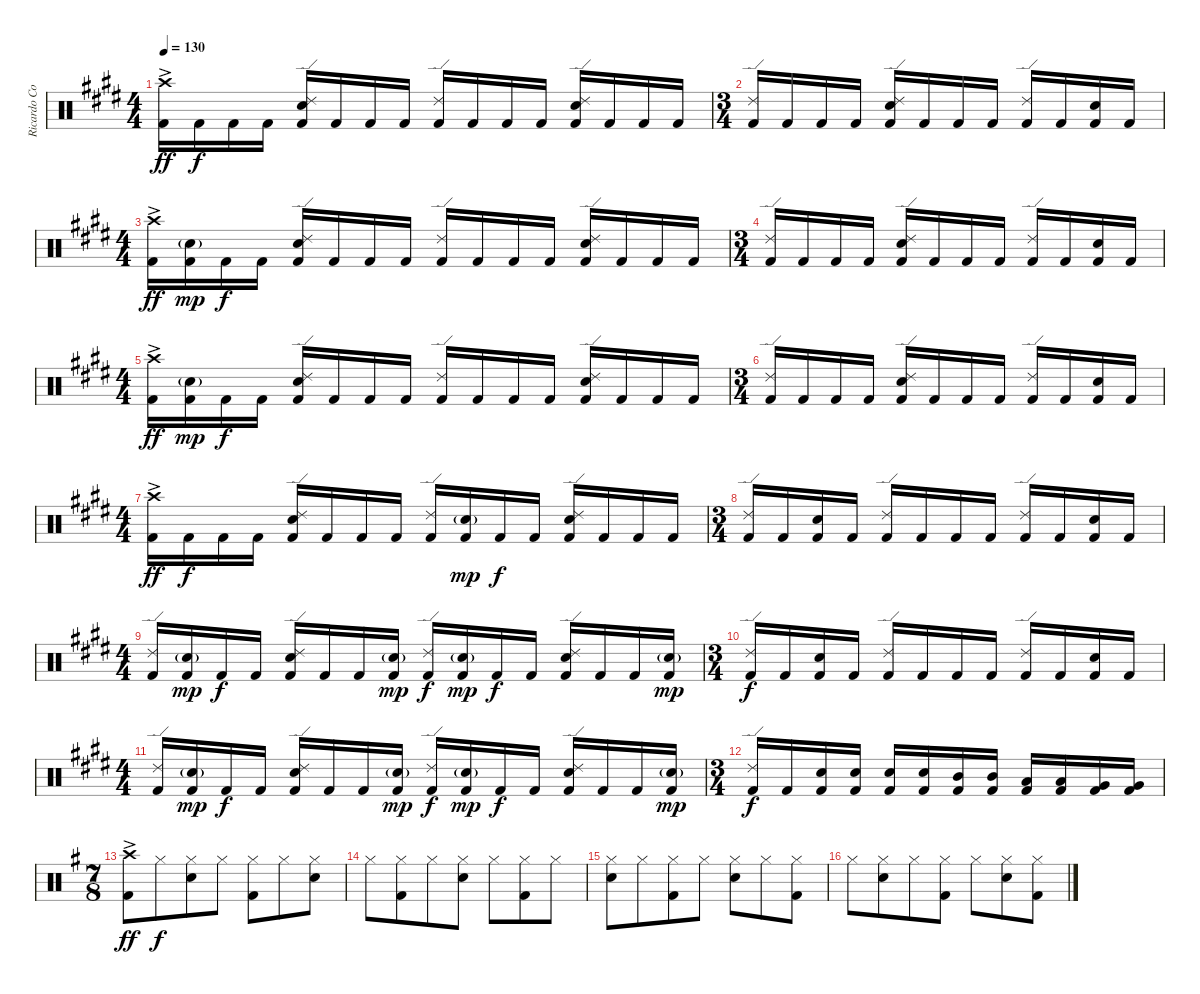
\track ("Ricardo Confessori" "Ricardo Co") {instrument percussion}
\staff {score}
\articulation defaults
\ts (4 4)
\tempo 130
\clef neutral
\ks c#minor
("Crash high (hit)"{ac} "Kick (hit) 2"{ac}).16{dy ff} "Kick (hit) 2".16{dy f} "Kick (hit) 2".16 "Kick (hit) 2".16 ("Kick (hit) 2" "Electric Snare (hit)" "Ride (edge) 2").16 "Kick (hit) 2".16 "Kick (hit) 2".16 "Kick (hit) 2".16 ("Kick (hit) 2" "Ride (edge) 2").16 "Kick (hit) 2".16 "Kick (hit) 2".16 "Kick (hit) 2".16 ("Kick (hit) 2" "Electric Snare (hit)" "Ride (edge) 2").16 "Kick (hit) 2".16 "Kick (hit) 2".16 "Kick (hit) 2".16 |
\ts (3 4)
("Ride (edge) 2" "Kick (hit) 2").16 "Kick (hit) 2".16 "Kick (hit) 2".16 "Kick (hit) 2".16 ("Ride (edge) 2" "Kick (hit) 2" "Electric Snare (hit)").16 "Kick (hit) 2".16 "Kick (hit) 2".16 "Kick (hit) 2".16 ("Kick (hit) 2" "Ride (edge) 2").16 "Kick (hit) 2".16 ("Kick (hit) 2" "Electric Snare (hit)").16 "Kick (hit) 2".16 |
\ts (4 4)
("Crash high (hit)"{ac} "Kick (hit) 2"{ac}).16{dy ff} ("Kick (hit) 2" "Electric Snare (hit)"{g}).16{dy mp} "Kick (hit) 2".16{dy f} "Kick (hit) 2".16 ("Kick (hit) 2" "Electric Snare (hit)" "Ride (edge) 2").16 "Kick (hit) 2".16 "Kick (hit) 2".16 "Kick (hit) 2".16 ("Kick (hit) 2" "Ride (edge) 2").16 "Kick (hit) 2".16 "Kick (hit) 2".16 "Kick (hit) 2".16 ("Kick (hit) 2" "Electric Snare (hit)" "Ride (edge) 2").16 "Kick (hit) 2".16 "Kick (hit) 2".16 "Kick (hit) 2".16 |
\ts (3 4)
("Ride (edge) 2" "Kick (hit) 2").16 "Kick (hit) 2".16 "Kick (hit) 2".16 "Kick (hit) 2".16 ("Ride (edge) 2" "Kick (hit) 2" "Electric Snare (hit)").16 "Kick (hit) 2".16 "Kick (hit) 2".16 "Kick (hit) 2".16 ("Kick (hit) 2" "Ride (edge) 2").16 "Kick (hit) 2".16 ("Kick (hit) 2" "Electric Snare (hit)").16 "Kick (hit) 2".16 |
\ts (4 4)
("Crash high (hit)"{ac} "Kick (hit) 2"{ac}).16{dy ff} ("Kick (hit) 2" "Electric Snare (hit)"{g}).16{dy mp} "Kick (hit) 2".16{dy f} "Kick (hit) 2".16 ("Kick (hit) 2" "Electric Snare (hit)" "Ride (edge) 2").16 "Kick (hit) 2".16 "Kick (hit) 2".16 "Kick (hit) 2".16 ("Kick (hit) 2" "Ride (edge) 2").16 "Kick (hit) 2".16 "Kick (hit) 2".16 "Kick (hit) 2".16 ("Kick (hit) 2" "Electric Snare (hit)" "Ride (edge) 2").16 "Kick (hit) 2".16 "Kick (hit) 2".16 "Kick (hit) 2".16 |
\ts (3 4)
("Ride (edge) 2" "Kick (hit) 2").16 "Kick (hit) 2".16 "Kick (hit) 2".16 "Kick (hit) 2".16 ("Ride (edge) 2" "Kick (hit) 2" "Electric Snare (hit)").16 "Kick (hit) 2".16 "Kick (hit) 2".16 "Kick (hit) 2".16 ("Kick (hit) 2" "Ride (edge) 2").16 "Kick (hit) 2".16 ("Kick (hit) 2" "Electric Snare (hit)").16 "Kick (hit) 2".16 |
\ts (4 4)
("Crash high (hit)"{ac} "Kick (hit) 2"{ac}).16{dy ff} "Kick (hit) 2".16{dy f} "Kick (hit) 2".16 "Kick (hit) 2".16 ("Kick (hit) 2" "Electric Snare (hit)" "Ride (edge) 2").16 "Kick (hit) 2".16 "Kick (hit) 2".16 "Kick (hit) 2".16 ("Kick (hit) 2" "Ride (edge) 2").16 ("Kick (hit) 2" "Electric Snare (hit)"{g}).16{dy mp} "Kick (hit) 2".16{dy f} "Kick (hit) 2".16 ("Kick (hit) 2" "Electric Snare (hit)" "Ride (edge) 2").16 "Kick (hit) 2".16 "Kick (hit) 2".16 "Kick (hit) 2".16 |
\ts (3 4)
("Ride (edge) 2" "Kick (hit) 2").16 "Kick (hit) 2".16 ("Kick (hit) 2" "Electric Snare (hit)").16 "Kick (hit) 2".16 ("Ride (edge) 2" "Kick (hit) 2").16 "Kick (hit) 2".16 "Kick (hit) 2".16 "Kick (hit) 2".16 ("Kick (hit) 2" "Ride (edge) 2").16 "Kick (hit) 2".16 ("Kick (hit) 2" "Electric Snare (hit)").16 "Kick (hit) 2".16 |
\ts (4 4)
("Ride (edge) 2" "Kick (hit) 2").16 ("Kick (hit) 2" "Electric Snare (hit)"{g}).16{dy mp} "Kick (hit) 2".16{dy f} "Kick (hit) 2".16 ("Kick (hit) 2" "Electric Snare (hit)" "Ride (edge) 2").16 "Kick (hit) 2".16 "Kick (hit) 2".16 ("Kick (hit) 2" "Electric Snare (hit)"{g}).16{dy mp} ("Kick (hit) 2" "Ride (edge) 2").16{dy f} ("Kick (hit) 2" "Electric Snare (hit)"{g}).16{dy mp} "Kick (hit) 2".16{dy f} "Kick (hit) 2".16 ("Kick (hit) 2" "Electric Snare (hit)" "Ride (edge) 2").16 "Kick (hit) 2".16 "Kick (hit) 2".16 ("Kick (hit) 2" "Electric Snare (hit)"{g}).16{dy mp} |
\ts (3 4)
("Ride (edge) 2" "Kick (hit) 2").16{dy f} "Kick (hit) 2".16 ("Kick (hit) 2" "Electric Snare (hit)").16 "Kick (hit) 2".16 ("Ride (edge) 2" "Kick (hit) 2").16 "Kick (hit) 2".16 "Kick (hit) 2".16 "Kick (hit) 2".16 ("Kick (hit) 2" "Ride (edge) 2").16 "Kick (hit) 2".16 ("Kick (hit) 2" "Electric Snare (hit)").16 "Kick (hit) 2".16 |
\ts (4 4)
("Ride (edge) 2" "Kick (hit) 2").16 ("Kick (hit) 2" "Electric Snare (hit)"{g}).16{dy mp} "Kick (hit) 2".16{dy f} "Kick (hit) 2".16 ("Kick (hit) 2" "Electric Snare (hit)" "Ride (edge) 2").16 "Kick (hit) 2".16 "Kick (hit) 2".16 ("Kick (hit) 2" "Electric Snare (hit)"{g}).16{dy mp} ("Kick (hit) 2" "Ride (edge) 2").16{dy f} ("Kick (hit) 2" "Electric Snare (hit)"{g}).16{dy mp} "Kick (hit) 2".16{dy f} "Kick (hit) 2".16 ("Kick (hit) 2" "Electric Snare (hit)" "Ride (edge) 2").16 "Kick (hit) 2".16 "Kick (hit) 2".16 ("Kick (hit) 2" "Electric Snare (hit)"{g}).16{dy mp} |
\ts (3 4)
("Ride (edge) 2" "Kick (hit) 2").16{dy f} "Kick (hit) 2".16 ("Kick (hit) 2" "Electric Snare (hit)").16 ("Kick (hit) 2" "Electric Snare (hit)").16 ("Kick (hit) 2" "Electric Snare (hit)").16 ("Kick (hit) 2" "Electric Snare (hit)").16 ("Kick (hit) 2" "Mid Tom (hit)").16 ("Kick (hit) 2" "Mid Tom (hit)").16 ("Kick (hit) 2" "Low Tom (hit)").16 ("Kick (hit) 2" "Low Tom (hit)").16 ("Kick (hit) 2" "Very Low Tom (hit)").16 ("Kick (hit) 2" "Very Low Tom (hit)").16 |
\ts (7 8)
\ks eminor
("Crash high (hit)"{ac} "Kick (hit) 2"{ac}).8{dy ff} "Hi-Hat (closed)".8{dy f} ("Hi-Hat (closed)" "Electric Snare (hit)").8 "Hi-Hat (closed)".8 ("Hi-Hat (closed)" "Kick (hit) 2").8 "Hi-Hat (closed)".8 ("Hi-Hat (closed)" "Electric Snare (hit)").8 |
"Hi-Hat (closed)".8 ("Hi-Hat (closed)" "Kick (hit) 2").8 "Hi-Hat (closed)".8 ("Hi-Hat (closed)" "Electric Snare (hit)").8 "Hi-Hat (closed)".8 ("Hi-Hat (closed)" "Kick (hit) 2").8 "Hi-Hat (closed)".8 |
("Hi-Hat (closed)" "Electric Snare (hit)").8 "Hi-Hat (closed)".8 ("Hi-Hat (closed)" "Kick (hit) 2").8 "Hi-Hat (closed)".8 ("Hi-Hat (closed)" "Electric Snare (hit)").8 "Hi-Hat (closed)".8 ("Hi-Hat (closed)" "Kick (hit) 2").8 |
"Hi-Hat (closed)".8 ("Hi-Hat (closed)" "Electric Snare (hit)").8 "Hi-Hat (closed)".8 ("Hi-Hat (closed)" "Kick (hit) 2").8 "Hi-Hat (closed)".8 ("Hi-Hat (closed)" "Electric Snare (hit)").8 ("Hi-Hat (closed)" "Kick (hit) 2").8
